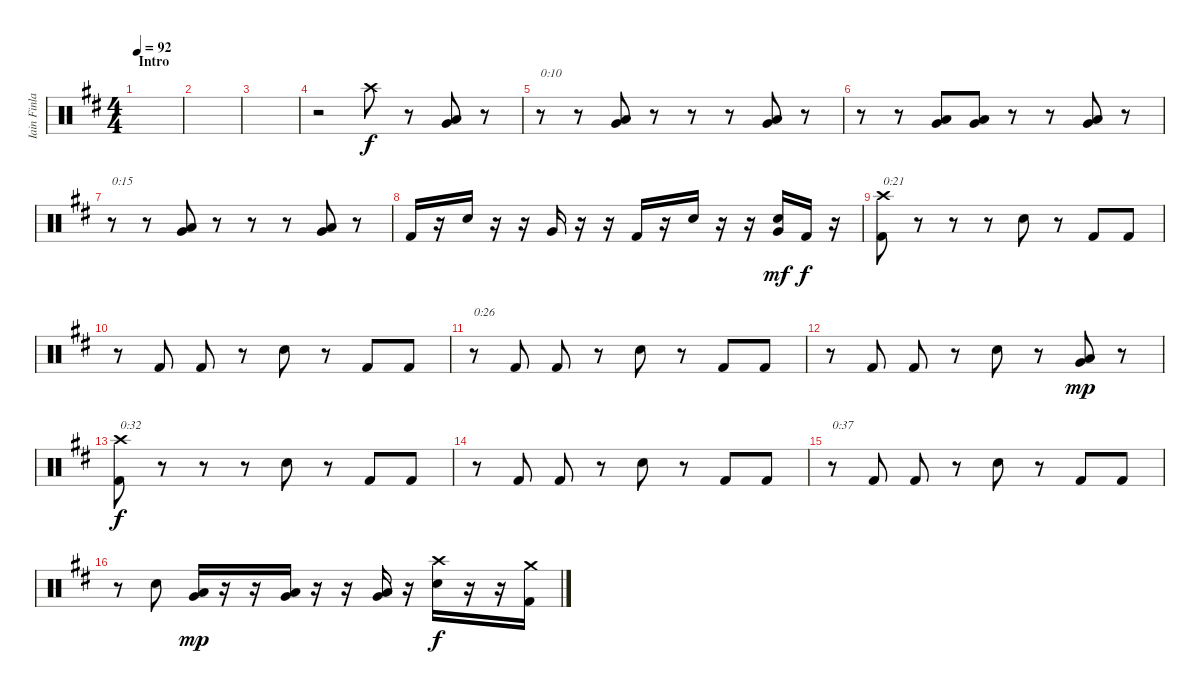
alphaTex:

\track ("Iain Finlay" "Iain Finla") {instrument percussion}
\staff {score}
\articulation defaults
\ts (4 4)
\section ("" "Intro")
\tempo 92
\clef neutral
\ks bminor
|
|
|
r.2 "Crash high (hit)".8 r.8 ("Low Floor Tom (hit)" "Very Low Tom (hit)").8 r.8 |
r.8{txt "0:10"} r.8 ("Low Floor Tom (hit)" "Very Low Tom (hit)").8 r.8 r.8 r.8 ("Low Floor Tom (hit)" "Very Low Tom (hit)").8 r.8 |
r.8 r.8 ("Low Floor Tom (hit)" "Very Low Tom (hit)").8 ("Low Floor Tom (hit)" "Very Low Tom (hit)").8 r.8 r.8 ("Low Floor Tom (hit)" "Very Low Tom (hit)").8 r.8 |
r.8{txt "0:15"} r.8 ("Low Floor Tom (hit)" "Very Low Tom (hit)").8 r.8 r.8 r.8 ("Low Floor Tom (hit)" "Very Low Tom (hit)").8 r.8 |
"Kick (hit) 2".16{dy f} r.16 "Electric Snare (hit)".16 r.16 r.16 "Very Low Tom (hit)".16 r.16 r.16 "Kick (hit) 2".16 r.16 "Electric Snare (hit)".16 r.16 r.16 ("Very Low Tom (hit)" "Electric Snare (hit)").16{dy mf} "Kick (hit) 2".16{dy f} r.16 |
("Crash high (hit)" "Kick (hit) 2").8{txt "0:21"} r.8 r.8 r.8 "Electric Snare (hit)".8 r.8 "Kick (hit) 2".8 "Kick (hit) 2".8 |
r.8 "Kick (hit) 2".8 "Kick (hit) 2".8 r.8 "Electric Snare (hit)".8 r.8 "Kick (hit) 2".8 "Kick (hit) 2".8 |
r.8{txt "0:26"} "Kick (hit) 2".8 "Kick (hit) 2".8 r.8 "Electric Snare (hit)".8 r.8 "Kick (hit) 2".8 "Kick (hit) 2".8 |
r.8 "Kick (hit) 2".8 "Kick (hit) 2".8 r.8 "Electric Snare (hit)".8 r.8 ("Low Floor Tom (hit)" "Very Low Tom (hit)").8{dy mp} r.8 |
("Crash high (hit)" "Kick (hit) 2").8{txt "0:32" dy f} r.8 r.8 r.8 "Electric Snare (hit)".8 r.8 "Kick (hit) 2".8 "Kick (hit) 2".8 |
r.8 "Kick (hit) 2".8 "Kick (hit) 2".8 r.8 "Electric Snare (hit)".8 r.8 "Kick (hit) 2".8 "Kick (hit) 2".8 |
r.8{txt "0:37"} "Kick (hit) 2".8 "Kick (hit) 2".8 r.8 "Electric Snare (hit)".8 r.8 "Kick (hit) 2".8 "Kick (hit) 2".8 |
r.8 "Electric Snare (hit)".8 ("Low Floor Tom (hit)" "Very Low Tom (hit)").16{dy mp} r.16 r.16 ("Low Floor Tom (hit)" "Very Low Tom (hit)").16 r.16 r.16 ("Low Floor Tom (hit)" "Very Low Tom (hit)").16 r.16 ("Crash high (hit)" "Electric Snare (hit)").16{dy f} r.16 r.16 ("Crash medium (hit)" "Kick (hit) 2").16
